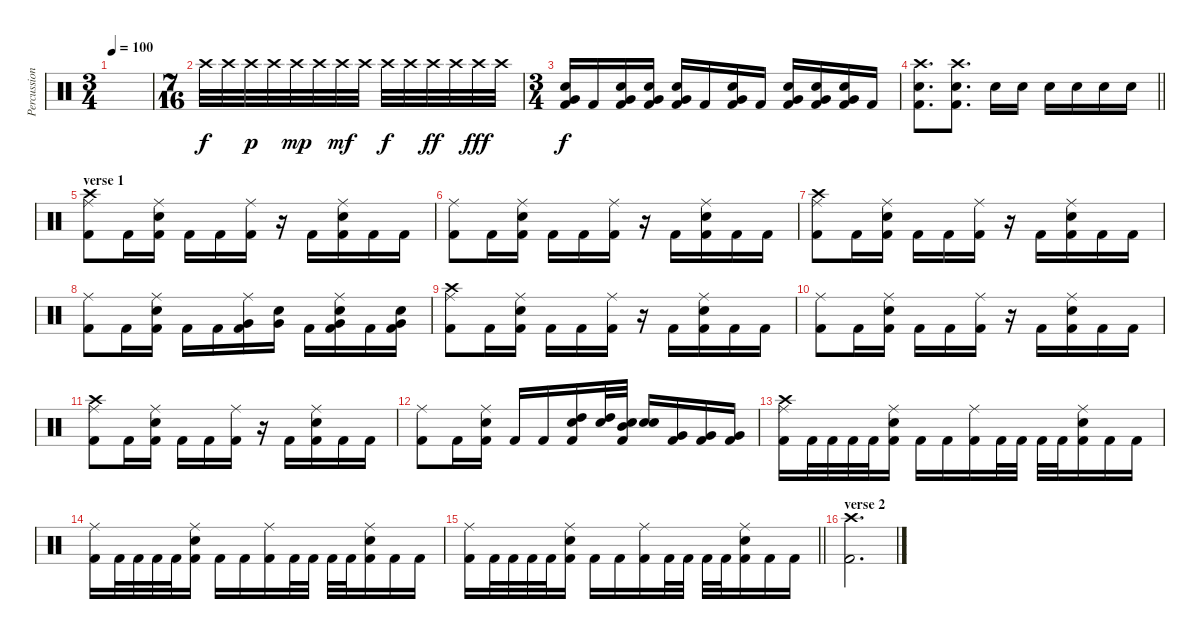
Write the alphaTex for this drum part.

\track ("Percussions" "Percussion") {instrument percussion}
\staff {score}
\articulation defaults
\ts (3 4)
\tempo 100
\clef neutral
\ks c
|
\ts (7 16)
"Crash high (hit)".32 "Crash high (hit)".32 "Crash high (hit)".32{dy p} "Crash high (hit)".32 "Crash high (hit)".32{dy mp} "Crash high (hit)".32 "Crash high (hit)".32{dy mf} "Crash high (hit)".32 "Crash high (hit)".32{dy f} "Crash high (hit)".32 "Crash high (hit)".32{dy ff} "Crash high (hit)".32 "Crash high (hit)".32{dy fff} "Crash high (hit)".32 |
\ts (3 4)
("Electric Snare (hit)" "Very Low Tom (hit)" "Kick (hit) 2").16{dy f} "Kick (hit) 2".16 ("Electric Snare (hit)" "Very Low Tom (hit)" "Kick (hit) 2").16 ("Electric Snare (hit)" "Very Low Tom (hit)" "Kick (hit) 2").16 ("Electric Snare (hit)" "Very Low Tom (hit)" "Kick (hit) 2").16 "Kick (hit) 2".16 ("Electric Snare (hit)" "Very Low Tom (hit)" "Kick (hit) 2").16 "Kick (hit) 2".16 ("Electric Snare (hit)" "Very Low Tom (hit)" "Kick (hit) 2").16 ("Electric Snare (hit)" "Very Low Tom (hit)" "Kick (hit) 2").16 ("Electric Snare (hit)" "Very Low Tom (hit)" "Kick (hit) 2").16 "Kick (hit) 2".16 |
\barLineRight lightlight
("Crash high (hit)" "Electric Snare (hit)" "Kick (hit) 2").8{d} ("Crash high (hit)" "Electric Snare (hit)" "Kick (hit) 2").8{d} "Electric Snare (hit)".16 "Electric Snare (hit)".16 "Electric Snare (hit)".16 "Electric Snare (hit)".16 "Electric Snare (hit)".16 "Electric Snare (hit)".16 |
\section ("" "verse 1")
("Crash high (hit)" "Ride (middle)" "Kick (hit) 2").8 "Kick (hit) 2".16 ("Ride (middle)" "Electric Snare (hit)" "Kick (hit) 2").16 "Kick (hit) 2".16 "Kick (hit) 2".16 ("Ride (middle)" "Kick (hit) 2").16 r.16 "Kick (hit) 2".16 ("Ride (middle)" "Electric Snare (hit)" "Kick (hit) 2").16 "Kick (hit) 2".16 "Kick (hit) 2".16 |
("Ride (middle)" "Kick (hit) 2").8 "Kick (hit) 2".16 ("Ride (middle)" "Electric Snare (hit)" "Kick (hit) 2").16 "Kick (hit) 2".16 "Kick (hit) 2".16 ("Ride (middle)" "Kick (hit) 2").16 r.16 "Kick (hit) 2".16 ("Ride (middle)" "Electric Snare (hit)" "Kick (hit) 2").16 "Kick (hit) 2".16 "Kick (hit) 2".16 |
("Crash high (hit)" "Ride (middle)" "Kick (hit) 2").8 "Kick (hit) 2".16 ("Ride (middle)" "Electric Snare (hit)" "Kick (hit) 2").16 "Kick (hit) 2".16 "Kick (hit) 2".16 ("Ride (middle)" "Kick (hit) 2").16 r.16 "Kick (hit) 2".16 ("Ride (middle)" "Electric Snare (hit)" "Kick (hit) 2").16 "Kick (hit) 2".16 "Kick (hit) 2".16 |
("Ride (middle)" "Kick (hit) 2").8 "Kick (hit) 2".16 ("Ride (middle)" "Electric Snare (hit)" "Kick (hit) 2").16 "Kick (hit) 2".16 "Kick (hit) 2".16 ("Ride (middle)" "Very Low Tom (hit)" "Kick (hit) 2").16 ("Electric Snare (hit)" "Very Low Tom (hit)").16 "Kick (hit) 2".16 ("Ride (middle)" "Electric Snare (hit)" "Very Low Tom (hit)" "Kick (hit) 2").16 "Kick (hit) 2".16 ("Electric Snare (hit)" "Very Low Tom (hit)" "Kick (hit) 2").16 |
("Crash high (hit)" "Ride (middle)" "Kick (hit) 2").8 "Kick (hit) 2".16 ("Ride (middle)" "Electric Snare (hit)" "Kick (hit) 2").16 "Kick (hit) 2".16 "Kick (hit) 2".16 ("Ride (middle)" "Kick (hit) 2").16 r.16 "Kick (hit) 2".16 ("Ride (middle)" "Electric Snare (hit)" "Kick (hit) 2").16 "Kick (hit) 2".16 "Kick (hit) 2".16 |
("Ride (middle)" "Kick (hit) 2").8 "Kick (hit) 2".16 ("Ride (middle)" "Electric Snare (hit)" "Kick (hit) 2").16 "Kick (hit) 2".16 "Kick (hit) 2".16 ("Ride (middle)" "Kick (hit) 2").16 r.16 "Kick (hit) 2".16 ("Ride (middle)" "Electric Snare (hit)" "Kick (hit) 2").16 "Kick (hit) 2".16 "Kick (hit) 2".16 |
("Crash high (hit)" "Ride (middle)" "Kick (hit) 2").8 "Kick (hit) 2".16 ("Ride (middle)" "Electric Snare (hit)" "Kick (hit) 2").16 "Kick (hit) 2".16 "Kick (hit) 2".16 ("Ride (middle)" "Kick (hit) 2").16 r.16 "Kick (hit) 2".16 ("Ride (middle)" "Electric Snare (hit)" "Kick (hit) 2").16 "Kick (hit) 2".16 "Kick (hit) 2".16 |
("Ride (middle)" "Kick (hit) 2").8 "Kick (hit) 2".16 ("Ride (middle)" "Electric Snare (hit)" "Kick (hit) 2").16 "Kick (hit) 2".16 "Kick (hit) 2".16 ("High Tom (hit)" "Electric Snare (hit)" "Kick (hit) 2").16 ("High Tom (hit)" "Electric Snare (hit)").32 ("Mid Tom (hit)" "Electric Snare (hit)" "Kick (hit) 2").32 ("Electric Snare (hit)" "Electric Snare (hit)").16 ("Very Low Tom (hit)" "Kick (hit) 2").16 ("Very Low Tom (hit)" "Kick (hit) 2").16 ("Very Low Tom (hit)" "Kick (hit) 2").16 |
("Crash high (hit)" "Ride (middle)" "Kick (hit) 2").16 "Kick (hit) 2".32 "Kick (hit) 2".32 "Kick (hit) 2".32 "Kick (hit) 2".32 ("Ride (middle)" "Electric Snare (hit)" "Kick (hit) 2").16 "Kick (hit) 2".16 "Kick (hit) 2".16 ("Ride (middle)" "Kick (hit) 2").16 "Kick (hit) 2".32 "Kick (hit) 2".32 "Kick (hit) 2".32 "Kick (hit) 2".32 ("Ride (middle)" "Electric Snare (hit)" "Kick (hit) 2").16 "Kick (hit) 2".16 "Kick (hit) 2".16 |
("Ride (middle)" "Kick (hit) 2").16 "Kick (hit) 2".32 "Kick (hit) 2".32 "Kick (hit) 2".32 "Kick (hit) 2".32 ("Ride (middle)" "Electric Snare (hit)" "Kick (hit) 2").16 "Kick (hit) 2".16 "Kick (hit) 2".16 ("Ride (middle)" "Kick (hit) 2").16 "Kick (hit) 2".32 "Kick (hit) 2".32 "Kick (hit) 2".32 "Kick (hit) 2".32 ("Ride (middle)" "Electric Snare (hit)" "Kick (hit) 2").16 "Kick (hit) 2".16 "Kick (hit) 2".16 |
\barLineRight lightlight
("Ride (middle)" "Kick (hit) 2").16 "Kick (hit) 2".32 "Kick (hit) 2".32 "Kick (hit) 2".32 "Kick (hit) 2".32 ("Ride (middle)" "Electric Snare (hit)" "Kick (hit) 2").16 "Kick (hit) 2".16 "Kick (hit) 2".16 ("Ride (middle)" "Kick (hit) 2").16 "Kick (hit) 2".32 "Kick (hit) 2".32 "Kick (hit) 2".32 "Kick (hit) 2".32 ("Ride (middle)" "Electric Snare (hit)" "Kick (hit) 2").16 "Kick (hit) 2".16 "Kick (hit) 2".16 |
\section ("" "verse 2")
("Crash high (hit)" "Kick (hit) 2").2{d}
